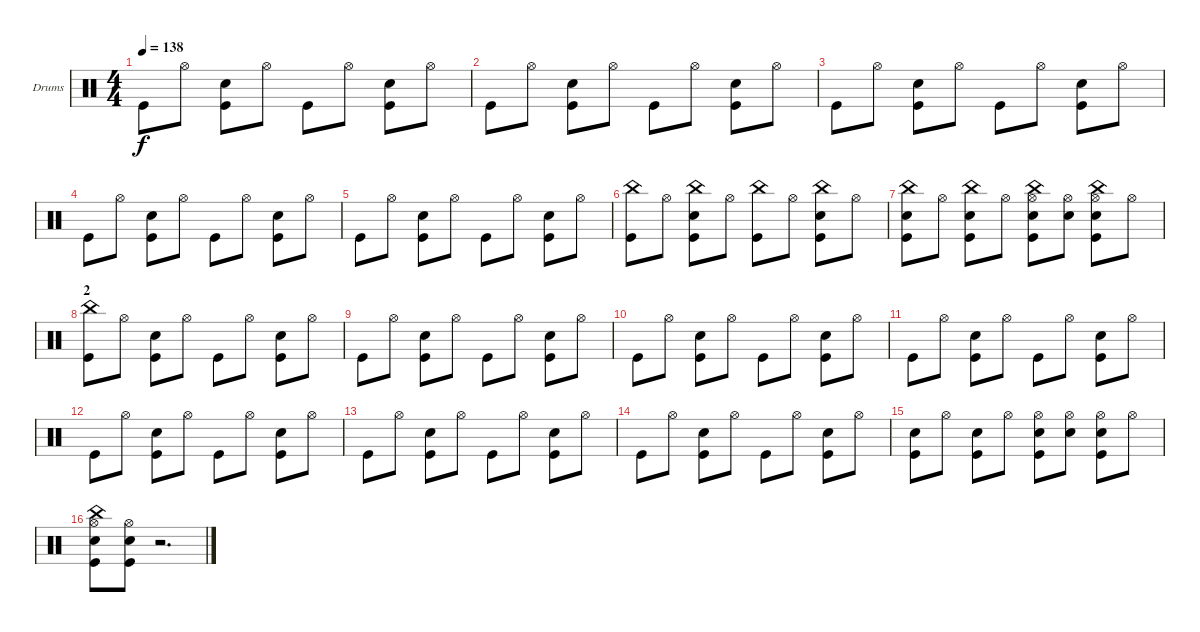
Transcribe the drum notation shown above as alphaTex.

\bracketExtendMode groupsimilarinstruments
\firstSystemTrackNameOrientation horizontal
\otherSystemsTrackNameOrientation horizontal
\track ("Drumkit" "Drums") {instrument percussion}
\staff {score}
\articulation defaults
\ts (4 4)
\tempo 138
\clef neutral
\ks c "Kick (hit)".8{dy f} "Hi-Hat (open)".8
("Snare (hit) 2" "Kick (hit)").8 "Hi-Hat (open)".8 "Kick (hit)".8 "Hi-Hat (open)".8 ("Snare (hit) 2" "Kick (hit)").8 "Hi-Hat (open)".8 |
"Kick (hit)".8 "Hi-Hat (open)".8 ("Snare (hit) 2" "Kick (hit)").8 "Hi-Hat (open)".8 "Kick (hit)".8 "Hi-Hat (open)".8 ("Snare (hit) 2" "Kick (hit)").8 "Hi-Hat (open)".8 |
"Kick (hit)".8 "Hi-Hat (open)".8 ("Snare (hit) 2" "Kick (hit)").8 "Hi-Hat (open)".8 "Kick (hit)".8 "Hi-Hat (open)".8 ("Snare (hit) 2" "Kick (hit)").8 "Hi-Hat (open)".8 |
"Kick (hit)".8 "Hi-Hat (open)".8 ("Snare (hit) 2" "Kick (hit)").8 "Hi-Hat (open)".8 "Kick (hit)".8 "Hi-Hat (open)".8 ("Snare (hit) 2" "Kick (hit)").8 "Hi-Hat (open)".8 |
"Kick (hit)".8 "Hi-Hat (open)".8 ("Snare (hit) 2" "Kick (hit)").8 "Hi-Hat (open)".8 "Kick (hit)".8 "Hi-Hat (open)".8 ("Snare (hit) 2" "Kick (hit)").8 "Hi-Hat (open)".8 |
("China (hit)" "Kick (hit)").8 "Hi-Hat (open)".8 ("China (hit)" "Snare (hit) 2" "Kick (hit)").8 "Hi-Hat (open)".8 ("China (hit)" "Kick (hit)").8 "Hi-Hat (open)".8 ("China (hit)" "Snare (hit) 2" "Kick (hit)").8 "Hi-Hat (open)".8 |
("China (hit)" "Snare (hit) 2" "Kick (hit)").8 "Hi-Hat (open)".8 ("China (hit)" "Snare (hit) 2" "Kick (hit)").8 "Hi-Hat (open)".8 ("China (hit)" "Hi-Hat (open)" "Snare (hit) 2" "Kick (hit)").8 ("Hi-Hat (open)" "Snare (hit) 2").8 ("China (hit)" "Hi-Hat (open)" "Snare (hit) 2" "Kick (hit)").8 "Hi-Hat (open)".8 |
\section ("" "2")
("China (hit)" "Kick (hit)").8 "Hi-Hat (open)".8 ("Snare (hit) 2" "Kick (hit)").8 "Hi-Hat (open)".8 "Kick (hit)".8 "Hi-Hat (open)".8 ("Snare (hit) 2" "Kick (hit)").8 "Hi-Hat (open)".8 |
"Kick (hit)".8 "Hi-Hat (open)".8 ("Snare (hit) 2" "Kick (hit)").8 "Hi-Hat (open)".8 "Kick (hit)".8 "Hi-Hat (open)".8 ("Snare (hit) 2" "Kick (hit)").8 "Hi-Hat (open)".8 |
"Kick (hit)".8 "Hi-Hat (open)".8 ("Snare (hit) 2" "Kick (hit)").8 "Hi-Hat (open)".8 "Kick (hit)".8 "Hi-Hat (open)".8 ("Snare (hit) 2" "Kick (hit)").8 "Hi-Hat (open)".8 |
"Kick (hit)".8 "Hi-Hat (open)".8 ("Snare (hit) 2" "Kick (hit)").8 "Hi-Hat (open)".8 "Kick (hit)".8 "Hi-Hat (open)".8 ("Snare (hit) 2" "Kick (hit)").8 "Hi-Hat (open)".8 |
"Kick (hit)".8 "Hi-Hat (open)".8 ("Snare (hit) 2" "Kick (hit)").8 "Hi-Hat (open)".8 "Kick (hit)".8 "Hi-Hat (open)".8 ("Snare (hit) 2" "Kick (hit)").8 "Hi-Hat (open)".8 |
"Kick (hit)".8 "Hi-Hat (open)".8 ("Snare (hit) 2" "Kick (hit)").8 "Hi-Hat (open)".8 "Kick (hit)".8 "Hi-Hat (open)".8 ("Snare (hit) 2" "Kick (hit)").8 "Hi-Hat (open)".8 |
"Kick (hit)".8 "Hi-Hat (open)".8 ("Snare (hit) 2" "Kick (hit)").8 "Hi-Hat (open)".8 "Kick (hit)".8 "Hi-Hat (open)".8 ("Snare (hit) 2" "Kick (hit)").8 "Hi-Hat (open)".8 |
("Snare (hit) 2" "Kick (hit)").8 "Hi-Hat (open)".8 ("Snare (hit) 2" "Kick (hit)").8 "Hi-Hat (open)".8 ("Hi-Hat (open)" "Snare (hit) 2" "Kick (hit)").8 ("Hi-Hat (open)" "Snare (hit) 2").8 ("Hi-Hat (open)" "Snare (hit) 2" "Kick (hit)").8 "Hi-Hat (open)".8 |
("China (hit)" "Hi-Hat (open)" "Snare (hit) 2" "Kick (hit)").8 ("Hi-Hat (open)" "Snare (hit) 2" "Kick (hit)").8 r.2{d}
